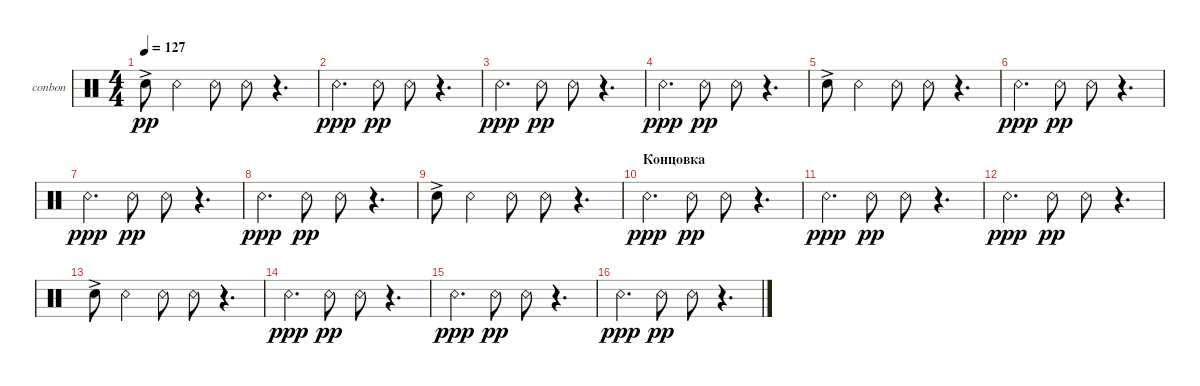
\defaultSystemsLayout 4
\bracketExtendMode groupsimilarinstruments
\firstSystemTrackNameOrientation horizontal
\otherSystemsTrackNameOrientation horizontal
\track ("Bongos N Congas" "conbon") {instrument percussion}
\staff {score}
\articulation defaults
\ts (4 4)
\tempo 127
\clef neutral
\scale
0.333333
\ks c "Snare (hit) 2"{ac}.8{dy pp} "Snare (rim shot)".4 "Snare (rim shot)".8 "Snare (rim shot)".8
r.4{d} |
\scale
0.333333 "Snare (rim shot)".4{d dy ppp} "Snare (rim shot)".8{dy pp} "Snare (rim shot)".8 r.4{d} |
\scale
0.333333 "Snare (rim shot)".4{d dy ppp} "Snare (rim shot)".8{dy pp} "Snare (rim shot)".8 r.4{d} |
\scale
0.333333 "Snare (rim shot)".4{d dy ppp} "Snare (rim shot)".8{dy pp} "Snare (rim shot)".8 r.4{d} |
\scale
0.333333 "Snare (hit) 2"{ac}.8 "Snare (rim shot)".4 "Snare (rim shot)".8 "Snare (rim shot)".8 r.4{d} |
\scale
0.333333 "Snare (rim shot)".4{d dy ppp} "Snare (rim shot)".8{dy pp} "Snare (rim shot)".8 r.4{d} |
\scale
0.333333 "Snare (rim shot)".4{d dy ppp} "Snare (rim shot)".8{dy pp} "Snare (rim shot)".8 r.4{d} |
\scale
0.333333 "Snare (rim shot)".4{d dy ppp} "Snare (rim shot)".8{dy pp} "Snare (rim shot)".8 r.4{d} |
\scale
0.333333 "Snare (hit) 2"{ac}.8 "Snare (rim shot)".4 "Snare (rim shot)".8 "Snare (rim shot)".8 r.4{d} |
\section ("" "Концовка")
\scale
0.333333 "Snare (rim shot)".4{d dy ppp} "Snare (rim shot)".8{dy pp} "Snare (rim shot)".8 r.4{d} |
\scale
0.333333 "Snare (rim shot)".4{d dy ppp} "Snare (rim shot)".8{dy pp} "Snare (rim shot)".8 r.4{d} |
\scale
0.333333 "Snare (rim shot)".4{d dy ppp} "Snare (rim shot)".8{dy pp} "Snare (rim shot)".8 r.4{d} |
\scale
0.333333 "Snare (hit) 2"{ac}.8 "Snare (rim shot)".4 "Snare (rim shot)".8 "Snare (rim shot)".8 r.4{d} |
\scale
0.333333 "Snare (rim shot)".4{d dy ppp} "Snare (rim shot)".8{dy pp} "Snare (rim shot)".8 r.4{d} |
\scale
0.333333 "Snare (rim shot)".4{d dy ppp} "Snare (rim shot)".8{dy pp} "Snare (rim shot)".8 r.4{d} |
\scale
0.333333 "Snare (rim shot)".4{d dy ppp} "Snare (rim shot)".8{dy pp} "Snare (rim shot)".8 r.4{d}
